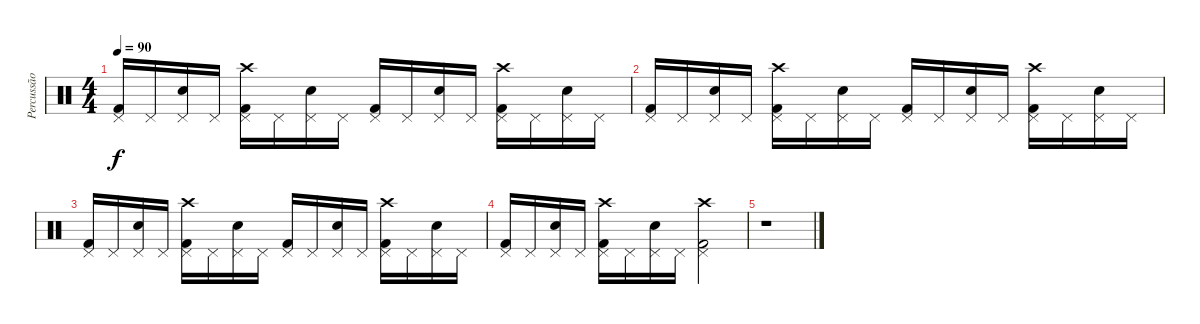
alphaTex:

\track ("Percussão" "Percussão") {instrument percussion}
\staff {score}
\articulation defaults
\ts (4 4)
\tempo 90
\clef neutral
\ks c
("Pedal Hi-Hat (hit)" "Kick (hit) 2").16{dy f} "Pedal Hi-Hat (hit)".16 ("Pedal Hi-Hat (hit)" "Electric Snare (hit)").16 "Pedal Hi-Hat (hit)".16 ("Crash high (hit)" "Pedal Hi-Hat (hit)" "Kick (hit) 2").16 "Pedal Hi-Hat (hit)".16 ("Pedal Hi-Hat (hit)" "Electric Snare (hit)").16 "Pedal Hi-Hat (hit)".16 ("Pedal Hi-Hat (hit)" "Kick (hit) 2").16 "Pedal Hi-Hat (hit)".16 ("Pedal Hi-Hat (hit)" "Electric Snare (hit)").16 "Pedal Hi-Hat (hit)".16 ("Crash high (hit)" "Pedal Hi-Hat (hit)" "Kick (hit) 2").16 "Pedal Hi-Hat (hit)".16 ("Pedal Hi-Hat (hit)" "Electric Snare (hit)").16 "Pedal Hi-Hat (hit)".16 |
("Pedal Hi-Hat (hit)" "Kick (hit) 2").16 "Pedal Hi-Hat (hit)".16 ("Pedal Hi-Hat (hit)" "Electric Snare (hit)").16 "Pedal Hi-Hat (hit)".16 ("Crash high (hit)" "Pedal Hi-Hat (hit)" "Kick (hit) 2").16 "Pedal Hi-Hat (hit)".16 ("Pedal Hi-Hat (hit)" "Electric Snare (hit)").16 "Pedal Hi-Hat (hit)".16 ("Pedal Hi-Hat (hit)" "Kick (hit) 2").16 "Pedal Hi-Hat (hit)".16 ("Pedal Hi-Hat (hit)" "Electric Snare (hit)").16 "Pedal Hi-Hat (hit)".16 ("Crash high (hit)" "Pedal Hi-Hat (hit)" "Kick (hit) 2").16 "Pedal Hi-Hat (hit)".16 ("Pedal Hi-Hat (hit)" "Electric Snare (hit)").16 "Pedal Hi-Hat (hit)".16 |
("Pedal Hi-Hat (hit)" "Kick (hit) 2").16 "Pedal Hi-Hat (hit)".16 ("Pedal Hi-Hat (hit)" "Electric Snare (hit)").16 "Pedal Hi-Hat (hit)".16 ("Crash high (hit)" "Pedal Hi-Hat (hit)" "Kick (hit) 2").16 "Pedal Hi-Hat (hit)".16 ("Pedal Hi-Hat (hit)" "Electric Snare (hit)").16 "Pedal Hi-Hat (hit)".16 ("Pedal Hi-Hat (hit)" "Kick (hit) 2").16 "Pedal Hi-Hat (hit)".16 ("Pedal Hi-Hat (hit)" "Electric Snare (hit)").16 "Pedal Hi-Hat (hit)".16 ("Crash high (hit)" "Pedal Hi-Hat (hit)" "Kick (hit) 2").16 "Pedal Hi-Hat (hit)".16 ("Pedal Hi-Hat (hit)" "Electric Snare (hit)").16 "Pedal Hi-Hat (hit)".16 |
("Pedal Hi-Hat (hit)" "Kick (hit) 2").16 "Pedal Hi-Hat (hit)".16 ("Pedal Hi-Hat (hit)" "Electric Snare (hit)").16 "Pedal Hi-Hat (hit)".16 ("Crash high (hit)" "Pedal Hi-Hat (hit)" "Kick (hit) 2").16 "Pedal Hi-Hat (hit)".16 ("Pedal Hi-Hat (hit)" "Electric Snare (hit)").16 "Pedal Hi-Hat (hit)".16 ("Crash high (hit)" "Pedal Hi-Hat (hit)" "Kick (hit) 2").2 |
r.1
